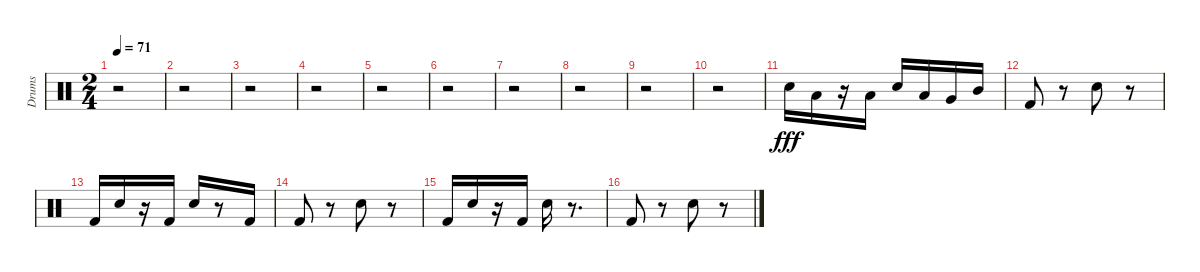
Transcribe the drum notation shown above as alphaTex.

\track ("Drums" "Drums") {instrument percussion}
\staff {score}
\articulation defaults
\ts (2 4)
\tempo 71
\clef neutral
\ks c
r.2{dy fff} |
r.2 |
r.2 |
r.2 |
r.2 |
r.2 |
r.2 |
r.2 |
r.2 |
r.2 |
"Electric Snare (hit)".16 "Low Floor Tom (hit)".16 r.16 "Low Floor Tom (hit)".16 "Electric Snare (hit)".16 "Low Floor Tom (hit)".16 "Very Low Tom (hit)".16 "Mid Tom (hit)".16 |
"Kick (hit) 2".8 r.8 "Snare (hit) 2".8 r.8 |
"Kick (hit) 2".16 "Snare (hit) 2".16 r.16 "Kick (hit) 2".16 "Snare (hit) 2".16 r.8 "Kick (hit) 2".16 |
"Kick (hit) 2".8 r.8 "Snare (hit) 2".8 r.8 |
"Kick (hit) 2".16 "Snare (hit) 2".16 r.16 "Kick (hit) 2".16 "Snare (hit) 2".16 r.8{d} |
"Kick (hit) 2".8 r.8 "Snare (hit) 2".8 r.8
